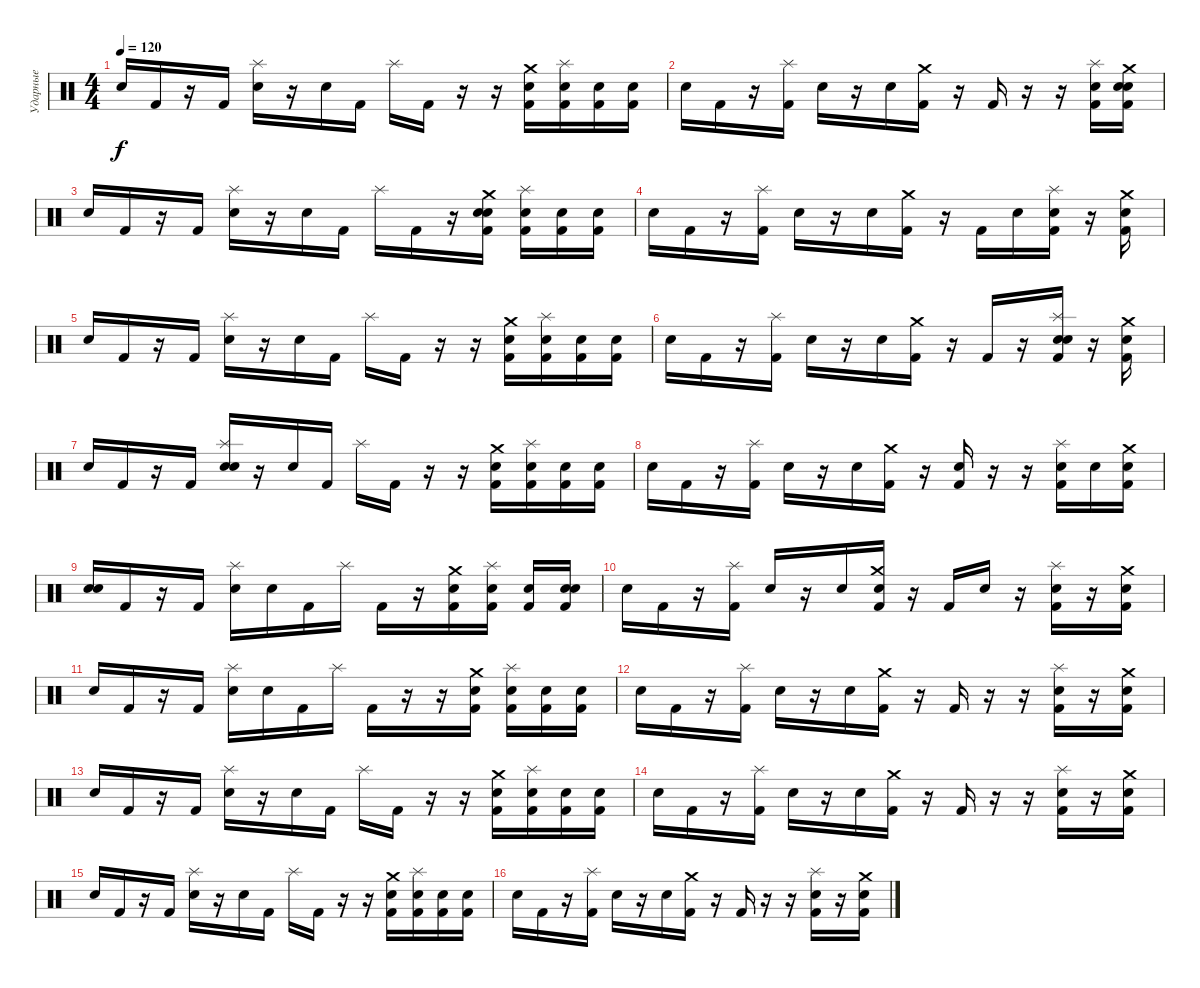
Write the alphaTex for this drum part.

\track ("Ударные" "Ударные") {instrument percussion}
\staff {score}
\articulation defaults
\ts (4 4)
\tempo 120
\clef neutral
\ks c "Electric Snare (hit)".16{dy f} "Kick (hit) 2".16
r.16 "Kick (hit) 2".16 ("Splash (hit)" "Electric Snare (hit)").16 r.16 "Electric Snare (hit)".16 "Kick (hit) 2".16 "Splash (hit)".16 "Kick (hit) 2".16 r.16 r.16 ("Crash medium (hit)" "Electric Snare (hit)" "Kick (hit) 2").16 ("Splash (hit)" "Electric Snare (hit)" "Kick (hit) 2").16 ("Electric Snare (hit)" "Kick (hit) 2").16 ("Electric Snare (hit)" "Kick (hit) 2").16 |
"Electric Snare (hit)".16 "Kick (hit) 2".16 r.16 ("Splash (hit)" "Kick (hit) 2").16 "Electric Snare (hit)".16 r.16 "Electric Snare (hit)".16 ("Crash medium (hit)" "Kick (hit) 2").16 r.16 "Kick (hit) 2".16 r.16 r.16 ("Splash (hit)" "Electric Snare (hit)" "Kick (hit) 2").16 ("Crash medium (hit)" "Snare (hit)" "Electric Snare (hit)" "Kick (hit) 2").16 |
"Electric Snare (hit)".16 "Kick (hit) 2".16 r.16 "Kick (hit) 2".16 ("Splash (hit)" "Electric Snare (hit)").16 r.16 "Electric Snare (hit)".16 "Kick (hit) 2".16 "Splash (hit)".16 "Kick (hit) 2".16 r.16 ("Crash medium (hit)" "Snare (hit)" "Electric Snare (hit)" "Kick (hit) 2").16 ("Splash (hit)" "Electric Snare (hit)" "Kick (hit) 2").16 ("Electric Snare (hit)" "Kick (hit) 2").16 ("Electric Snare (hit)" "Kick (hit) 2").16 |
"Electric Snare (hit)".16 "Kick (hit) 2".16 r.16 ("Splash (hit)" "Kick (hit) 2").16 "Electric Snare (hit)".16 r.16 "Electric Snare (hit)".16 ("Crash medium (hit)" "Kick (hit) 2").16 r.16 "Kick (hit) 2".16 "Snare (hit)".16 ("Splash (hit)" "Electric Snare (hit)" "Kick (hit) 2").16 r.16 ("Crash medium (hit)" "Electric Snare (hit)" "Kick (hit) 2").16 |
"Electric Snare (hit)".16 "Kick (hit) 2".16 r.16 "Kick (hit) 2".16 ("Splash (hit)" "Electric Snare (hit)").16 r.16 "Electric Snare (hit)".16 "Kick (hit) 2".16 "Splash (hit)".16 "Kick (hit) 2".16 r.16 r.16 ("Crash medium (hit)" "Electric Snare (hit)" "Kick (hit) 2").16 ("Splash (hit)" "Electric Snare (hit)" "Kick (hit) 2").16 ("Electric Snare (hit)" "Kick (hit) 2").16 ("Electric Snare (hit)" "Kick (hit) 2").16 |
"Electric Snare (hit)".16 "Kick (hit) 2".16 r.16 ("Splash (hit)" "Kick (hit) 2").16 "Electric Snare (hit)".16 r.16 "Electric Snare (hit)".16 ("Crash medium (hit)" "Kick (hit) 2").16 r.16 "Kick (hit) 2".16 r.16 ("Splash (hit)" "Snare (hit)" "Electric Snare (hit)" "Kick (hit) 2").16 r.16 ("Crash medium (hit)" "Electric Snare (hit)" "Kick (hit) 2").16 |
"Electric Snare (hit)".16 "Kick (hit) 2".16 r.16 "Kick (hit) 2".16 ("Splash (hit)" "Snare (hit)" "Electric Snare (hit)").16 r.16 "Electric Snare (hit)".16 "Kick (hit) 2".16 "Splash (hit)".16 "Kick (hit) 2".16 r.16 r.16 ("Crash medium (hit)" "Electric Snare (hit)" "Kick (hit) 2").16 ("Splash (hit)" "Electric Snare (hit)" "Kick (hit) 2").16 ("Electric Snare (hit)" "Kick (hit) 2").16 ("Electric Snare (hit)" "Kick (hit) 2").16 |
"Electric Snare (hit)".16 "Kick (hit) 2".16 r.16 ("Splash (hit)" "Kick (hit) 2").16 "Electric Snare (hit)".16 r.16 "Electric Snare (hit)".16 ("Crash medium (hit)" "Kick (hit) 2").16 r.16 ("Snare (hit)" "Kick (hit) 2").16 r.16 r.16 ("Splash (hit)" "Electric Snare (hit)" "Kick (hit) 2").16 "Snare (hit)".16 ("Crash medium (hit)" "Electric Snare (hit)" "Kick (hit) 2").16 |
("Snare (hit)" "Electric Snare (hit)").16 "Kick (hit) 2".16 r.16 "Kick (hit) 2".16 ("Splash (hit)" "Electric Snare (hit)").16 "Electric Snare (hit)".16 "Kick (hit) 2".16 "Splash (hit)".16 "Kick (hit) 2".16 r.16 ("Crash medium (hit)" "Electric Snare (hit)" "Kick (hit) 2").16 ("Splash (hit)" "Electric Snare (hit)" "Kick (hit) 2").16 ("Electric Snare (hit)" "Kick (hit) 2").16 ("Snare (hit)" "Electric Snare (hit)" "Kick (hit) 2").16 |
"Electric Snare (hit)".16 "Kick (hit) 2".16 r.16 ("Splash (hit)" "Kick (hit) 2").16 "Electric Snare (hit)".16 r.16 "Electric Snare (hit)".16 ("Crash medium (hit)" "Snare (hit)" "Kick (hit) 2").16 r.16 "Kick (hit) 2".16 "Snare (hit)".16 r.16 ("Splash (hit)" "Electric Snare (hit)" "Kick (hit) 2").16 r.16 ("Crash medium (hit)" "Electric Snare (hit)" "Kick (hit) 2").16 |
"Electric Snare (hit)".16 "Kick (hit) 2".16 r.16 "Kick (hit) 2".16 ("Splash (hit)" "Electric Snare (hit)").16 "Electric Snare (hit)".16 "Kick (hit) 2".16 "Splash (hit)".16 "Kick (hit) 2".16 r.16 r.16 ("Crash medium (hit)" "Electric Snare (hit)" "Kick (hit) 2").16 ("Splash (hit)" "Electric Snare (hit)" "Kick (hit) 2").16 ("Electric Snare (hit)" "Kick (hit) 2").16 ("Electric Snare (hit)" "Kick (hit) 2").16 |
"Electric Snare (hit)".16 "Kick (hit) 2".16 r.16 ("Splash (hit)" "Kick (hit) 2").16 "Electric Snare (hit)".16 r.16 "Electric Snare (hit)".16 ("Crash medium (hit)" "Kick (hit) 2").16 r.16 "Kick (hit) 2".16 r.16 r.16 ("Splash (hit)" "Electric Snare (hit)" "Kick (hit) 2").16 r.16 ("Crash medium (hit)" "Electric Snare (hit)" "Kick (hit) 2").16 |
"Electric Snare (hit)".16 "Kick (hit) 2".16 r.16 "Kick (hit) 2".16 ("Splash (hit)" "Electric Snare (hit)").16 r.16 "Electric Snare (hit)".16 "Kick (hit) 2".16 "Splash (hit)".16 "Kick (hit) 2".16 r.16 r.16 ("Crash medium (hit)" "Electric Snare (hit)" "Kick (hit) 2").16 ("Splash (hit)" "Electric Snare (hit)" "Kick (hit) 2").16 ("Electric Snare (hit)" "Kick (hit) 2").16 ("Electric Snare (hit)" "Kick (hit) 2").16 |
"Electric Snare (hit)".16 "Kick (hit) 2".16 r.16 ("Splash (hit)" "Kick (hit) 2").16 "Electric Snare (hit)".16 r.16 "Electric Snare (hit)".16 ("Crash medium (hit)" "Kick (hit) 2").16 r.16 "Kick (hit) 2".16 r.16 r.16 ("Splash (hit)" "Electric Snare (hit)" "Kick (hit) 2").16 r.16 ("Crash medium (hit)" "Electric Snare (hit)" "Kick (hit) 2").16 |
"Electric Snare (hit)".16 "Kick (hit) 2".16 r.16 "Kick (hit) 2".16 ("Splash (hit)" "Electric Snare (hit)").16 r.16 "Electric Snare (hit)".16 "Kick (hit) 2".16 "Splash (hit)".16 "Kick (hit) 2".16 r.16 r.16 ("Crash medium (hit)" "Electric Snare (hit)" "Kick (hit) 2").16 ("Splash (hit)" "Electric Snare (hit)" "Kick (hit) 2").16 ("Electric Snare (hit)" "Kick (hit) 2").16 ("Electric Snare (hit)" "Kick (hit) 2").16 |
"Electric Snare (hit)".16 "Kick (hit) 2".16 r.16 ("Splash (hit)" "Kick (hit) 2").16 "Electric Snare (hit)".16 r.16 "Electric Snare (hit)".16 ("Crash medium (hit)" "Kick (hit) 2").16 r.16 "Kick (hit) 2".16 r.16 r.16 ("Splash (hit)" "Electric Snare (hit)" "Kick (hit) 2").16 r.16 ("Crash medium (hit)" "Electric Snare (hit)" "Kick (hit) 2").16
